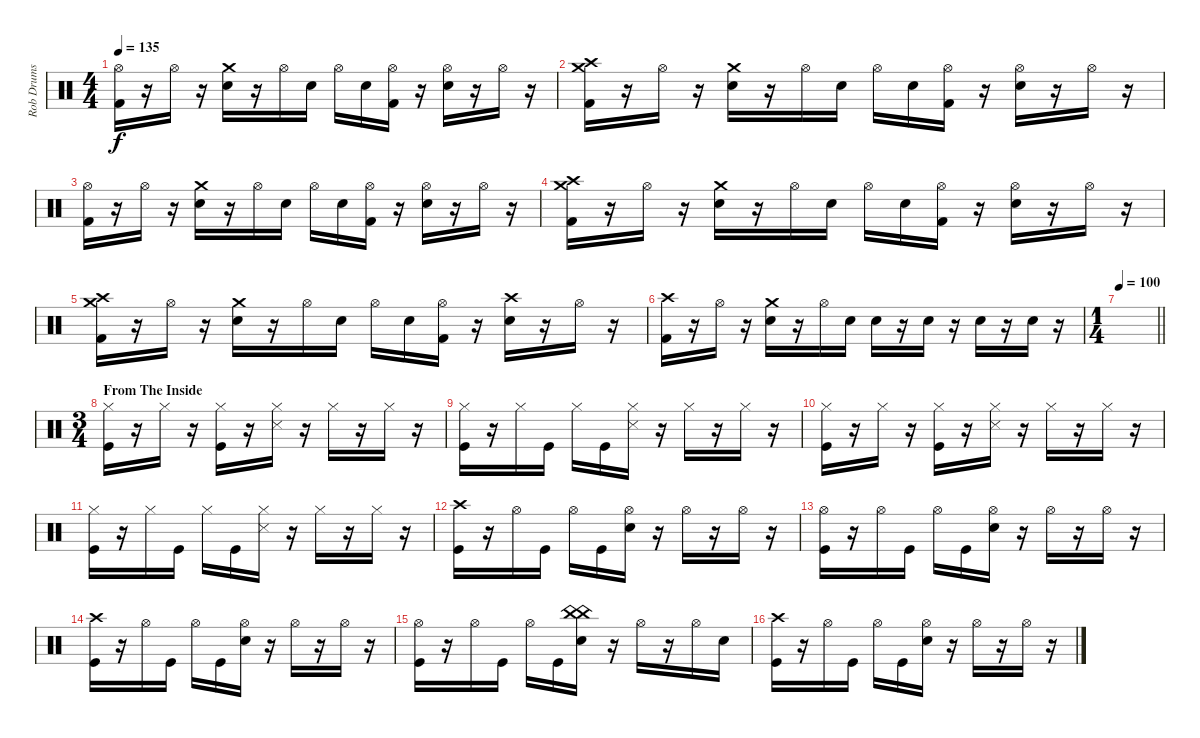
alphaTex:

\track ("Rob Drums" "Rob Drums") {instrument percussion}
\staff {score}
\articulation defaults
\ts (4 4)
\tempo 135
\clef neutral
\ks c
("Hi-Hat (open)" "Kick (hit) 2").16{dy f} r.16 "Hi-Hat (open)".16 r.16 ("Crash medium (hit)" "Electric Snare (hit)").16 r.16 "Hi-Hat (open)".16 "Electric Snare (hit)".16 "Hi-Hat (open)".16 "Electric Snare (hit)".16 ("Hi-Hat (open)" "Kick (hit) 2").16 r.16 ("Hi-Hat (open)" "Electric Snare (hit)").16 r.16 "Hi-Hat (open)".16 r.16 |
("Crash high (hit)" "Crash medium (hit)" "Kick (hit) 2").16 r.16 "Hi-Hat (open)".16 r.16 ("Crash medium (hit)" "Electric Snare (hit)").16 r.16 "Hi-Hat (open)".16 "Electric Snare (hit)".16 "Hi-Hat (open)".16 "Electric Snare (hit)".16 ("Hi-Hat (open)" "Kick (hit) 2").16 r.16 ("Hi-Hat (open)" "Electric Snare (hit)").16 r.16 "Hi-Hat (open)".16 r.16 |
("Hi-Hat (open)" "Kick (hit) 2").16 r.16 "Hi-Hat (open)".16 r.16 ("Crash medium (hit)" "Electric Snare (hit)").16 r.16 "Hi-Hat (open)".16 "Electric Snare (hit)".16 "Hi-Hat (open)".16 "Electric Snare (hit)".16 ("Hi-Hat (open)" "Kick (hit) 2").16 r.16 ("Hi-Hat (open)" "Electric Snare (hit)").16 r.16 "Hi-Hat (open)".16 r.16 |
("Crash high (hit)" "Crash medium (hit)" "Kick (hit) 2").16 r.16 "Hi-Hat (open)".16 r.16 ("Crash medium (hit)" "Electric Snare (hit)").16 r.16 "Hi-Hat (open)".16 "Electric Snare (hit)".16 "Hi-Hat (open)".16 "Electric Snare (hit)".16 ("Hi-Hat (open)" "Kick (hit) 2").16 r.16 ("Hi-Hat (open)" "Electric Snare (hit)").16 r.16 "Hi-Hat (open)".16 r.16 |
("Crash high (hit)" "Crash medium (hit)" "Kick (hit) 2").16 r.16 "Hi-Hat (open)".16 r.16 ("Crash medium (hit)" "Electric Snare (hit)").16 r.16 "Hi-Hat (open)".16 "Electric Snare (hit)".16 "Hi-Hat (open)".16 "Electric Snare (hit)".16 ("Hi-Hat (open)" "Kick (hit) 2").16 r.16 ("Crash high (hit)" "Electric Snare (hit)").16 r.16 "Hi-Hat (open)".16 r.16 |
("Crash high (hit)" "Kick (hit) 2").16 r.16 "Hi-Hat (open)".16 r.16 ("Crash medium (hit)" "Electric Snare (hit)").16 r.16 "Hi-Hat (open)".16 "Electric Snare (hit)".16 "Electric Snare (hit)".16 r.16 "Electric Snare (hit)".16 r.16 "Electric Snare (hit)".16 r.16 "Electric Snare (hit)".16 r.16 |
\ts (1 4)
\tempo 100
\barLineRight lightlight
|
\ts (3 4)
\section ("" "From The Inside")
("Hi-Hat (closed)" "Kick (hit)").16 r.16 "Hi-Hat (closed)".16 r.16 ("Hi-Hat (closed)" "Kick (hit)").16 r.16 ("Hi-Hat (closed)" "Snare (side stick) 3").16 r.16 "Hi-Hat (closed)".16 r.16 "Hi-Hat (closed)".16 r.16 |
("Hi-Hat (closed)" "Kick (hit)").16 r.16 "Hi-Hat (closed)".16 "Kick (hit)".16 "Hi-Hat (closed)".16 "Kick (hit)".16 ("Hi-Hat (closed)" "Snare (side stick) 3").16 r.16 "Hi-Hat (closed)".16 r.16 "Hi-Hat (closed)".16 r.16 |
("Hi-Hat (closed)" "Kick (hit)").16 r.16 "Hi-Hat (closed)".16 r.16 ("Hi-Hat (closed)" "Kick (hit)").16 r.16 ("Hi-Hat (closed)" "Snare (side stick) 3").16 r.16 "Hi-Hat (closed)".16 r.16 "Hi-Hat (closed)".16 r.16 |
("Hi-Hat (closed)" "Kick (hit)").16 r.16 "Hi-Hat (closed)".16 "Kick (hit)".16 "Hi-Hat (closed)".16 "Kick (hit)".16 ("Hi-Hat (closed)" "Snare (side stick) 3").16 r.16 "Hi-Hat (closed)".16 r.16 "Hi-Hat (closed)".16 r.16 |
("Crash high (hit)" "Kick (hit)").16 r.16 "Hi-Hat (open)".16 "Kick (hit)".16 "Hi-Hat (open)".16 "Kick (hit)".16 ("Hi-Hat (open)" "Snare (hit) 2").16 r.16 "Hi-Hat (open)".16 r.16 "Hi-Hat (open)".16 r.16 |
("Hi-Hat (open)" "Kick (hit)").16 r.16 "Hi-Hat (open)".16 "Kick (hit)".16 "Hi-Hat (open)".16 "Kick (hit)".16 ("Hi-Hat (open)" "Snare (hit) 2").16 r.16 "Hi-Hat (open)".16 r.16 "Hi-Hat (open)".16 r.16 |
("Crash high (hit)" "Kick (hit)").16 r.16 "Hi-Hat (open)".16 "Kick (hit)".16 "Hi-Hat (open)".16 "Kick (hit)".16 ("Hi-Hat (open)" "Snare (hit) 2").16 r.16 "Hi-Hat (open)".16 r.16 "Hi-Hat (open)".16 r.16 |
("Hi-Hat (open)" "Kick (hit)").16 r.16 "Hi-Hat (open)".16 "Kick (hit)".16 "Hi-Hat (open)".16 "Kick (hit)".16 ("China (hit)" "China (hit)" "Snare (hit) 2").16 r.16 "Hi-Hat (open)".16 r.16 "Hi-Hat (open)".16 "Snare (hit) 2".16 |
("Crash high (hit)" "Kick (hit)").16 r.16 "Hi-Hat (open)".16 "Kick (hit)".16 "Hi-Hat (open)".16 "Kick (hit)".16 ("Hi-Hat (open)" "Snare (hit) 2").16 r.16 "Hi-Hat (open)".16 r.16 "Hi-Hat (open)".16 r.16
